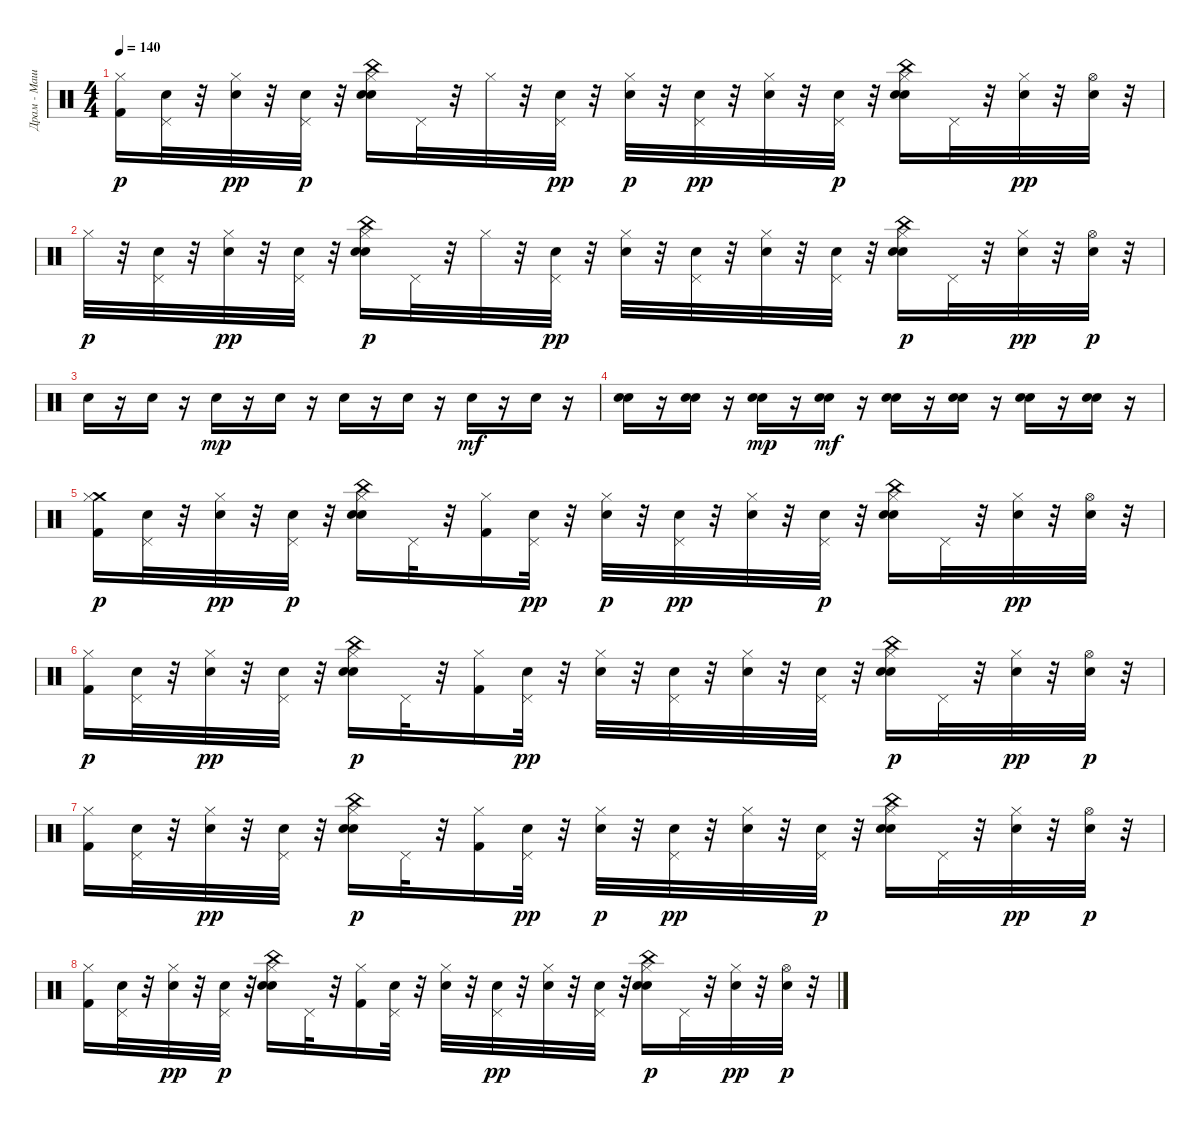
\track ("Драм - Машина" "Драм - Маш") {instrument percussion}
\staff {score}
\articulation defaults
\ts (4 4)
\tempo 140
\clef neutral
\ks c
("Kick (hit) 2" "Hi-Hat (closed)").16{dy p} ("Snare (hit) 2" "Pedal Hi-Hat (hit)").32 r.32 ("Hi-Hat (closed)" "Snare (hit) 2").32{dy pp} r.32 ("Snare (hit) 2" "Pedal Hi-Hat (hit)").32{dy p} r.32 ("Electric Snare (hit)" "China (hit)" "Hand Clap (hit)" "Hi-Hat (closed)").16 "Pedal Hi-Hat (hit)".32 r.32 "Hi-Hat (closed)".32 r.32 ("Pedal Hi-Hat (hit)" "Snare (hit) 2").32{dy pp} r.32 ("Snare (hit) 2" "Hi-Hat (closed)").32{dy p} r.32 ("Pedal Hi-Hat (hit)" "Snare (hit) 2").32{dy pp} r.32 ("Hi-Hat (closed)" "Snare (hit) 2").32 r.32 ("Snare (hit) 2" "Pedal Hi-Hat (hit)").32{dy p} r.32 ("Electric Snare (hit)" "Hand Clap (hit)" "China (hit)" "Hi-Hat (closed)").16 "Pedal Hi-Hat (hit)".32 r.32 ("Hi-Hat (closed)" "Snare (hit) 2").32{dy pp} r.32 ("Hi-Hat (open)" "Snare (hit) 2").32 r.32 |
"Hi-Hat (closed)".32{dy p} r.32 ("Snare (hit) 2" "Pedal Hi-Hat (hit)").32 r.32 ("Hi-Hat (closed)" "Snare (hit) 2").32{dy pp} r.32 ("Pedal Hi-Hat (hit)" "Snare (hit) 2").32 r.32 ("Hi-Hat (closed)" "Electric Snare (hit)" "Hand Clap (hit)" "China (hit)").16{dy p} "Pedal Hi-Hat (hit)".32 r.32 "Hi-Hat (closed)".32 r.32 ("Pedal Hi-Hat (hit)" "Snare (hit) 2").32{dy pp} r.32 ("Hi-Hat (closed)" "Snare (hit) 2").32 r.32 ("Pedal Hi-Hat (hit)" "Snare (hit) 2").32 r.32 ("Hi-Hat (closed)" "Snare (hit) 2").32 r.32 ("Pedal Hi-Hat (hit)" "Snare (hit) 2").32 r.32 ("Hi-Hat (closed)" "Electric Snare (hit)" "Hand Clap (hit)" "China (hit)").16{dy p} "Pedal Hi-Hat (hit)".32 r.32 ("Hi-Hat (closed)" "Snare (hit) 2").32{dy pp} r.32 ("Snare (hit) 2" "Hi-Hat (open)").32{dy p} r.32 |
"Electric Snare (hit)".16 r.16 "Electric Snare (hit)".16 r.16 "Electric Snare (hit)".16{dy mp} r.16 "Electric Snare (hit)".16 r.16 "Electric Snare (hit)".16 r.16 "Electric Snare (hit)".16 r.16 "Electric Snare (hit)".16{dy mf} r.16 "Electric Snare (hit)".16 r.16 |
("Hand Clap (hit)" "Electric Snare (hit)").16 r.16 ("Hand Clap (hit)" "Electric Snare (hit)").16 r.16 ("Electric Snare (hit)" "Hand Clap (hit)").16{dy mp} r.16 ("Hand Clap (hit)" "Electric Snare (hit)").16{dy mf} r.16 ("Hand Clap (hit)" "Electric Snare (hit)").16 r.16 ("Hand Clap (hit)" "Electric Snare (hit)").16 r.16 ("Hand Clap (hit)" "Electric Snare (hit)").16 r.16 ("Hand Clap (hit)" "Electric Snare (hit)").16 r.16 |
("Crash medium (hit)" "Kick (hit) 2" "Hi-Hat (closed)").16{dy p} ("Snare (hit) 2" "Pedal Hi-Hat (hit)").32 r.32 ("Hi-Hat (closed)" "Snare (hit) 2").32{dy pp} r.32 ("Snare (hit) 2" "Pedal Hi-Hat (hit)").32{dy p} r.32 ("Electric Snare (hit)" "China (hit)" "Hand Clap (hit)" "Hi-Hat (closed)").16 "Pedal Hi-Hat (hit)".32 r.32 ("Hi-Hat (closed)" "Kick (hit) 2").16 ("Pedal Hi-Hat (hit)" "Snare (hit) 2").32{dy pp} r.32 ("Snare (hit) 2" "Hi-Hat (closed)").32{dy p} r.32 ("Pedal Hi-Hat (hit)" "Snare (hit) 2").32{dy pp} r.32 ("Hi-Hat (closed)" "Snare (hit) 2").32 r.32 ("Snare (hit) 2" "Pedal Hi-Hat (hit)").32{dy p} r.32 ("Electric Snare (hit)" "Hand Clap (hit)" "China (hit)" "Hi-Hat (closed)").16 "Pedal Hi-Hat (hit)".32 r.32 ("Hi-Hat (closed)" "Snare (hit) 2").32{dy pp} r.32 ("Hi-Hat (open)" "Snare (hit) 2").32 r.32 |
("Hi-Hat (closed)" "Kick (hit) 2").16{dy p} ("Snare (hit) 2" "Pedal Hi-Hat (hit)").32 r.32 ("Hi-Hat (closed)" "Snare (hit) 2").32{dy pp} r.32 ("Pedal Hi-Hat (hit)" "Snare (hit) 2").32 r.32 ("Hi-Hat (closed)" "Electric Snare (hit)" "Hand Clap (hit)" "China (hit)").16{dy p} "Pedal Hi-Hat (hit)".32 r.32 ("Hi-Hat (closed)" "Kick (hit) 2").16 ("Pedal Hi-Hat (hit)" "Snare (hit) 2").32{dy pp} r.32 ("Hi-Hat (closed)" "Snare (hit) 2").32 r.32 ("Pedal Hi-Hat (hit)" "Snare (hit) 2").32 r.32 ("Hi-Hat (closed)" "Snare (hit) 2").32 r.32 ("Pedal Hi-Hat (hit)" "Snare (hit) 2").32 r.32 ("Hi-Hat (closed)" "Electric Snare (hit)" "Hand Clap (hit)" "China (hit)").16{dy p} "Pedal Hi-Hat (hit)".32 r.32 ("Hi-Hat (closed)" "Snare (hit) 2").32{dy pp} r.32 ("Snare (hit) 2" "Hi-Hat (open)").32{dy p} r.32 |
("Kick (hit) 2" "Hi-Hat (closed)").16 ("Snare (hit) 2" "Pedal Hi-Hat (hit)").32 r.32 ("Hi-Hat (closed)" "Snare (hit) 2").32{dy pp} r.32 ("Pedal Hi-Hat (hit)" "Snare (hit) 2").32 r.32 ("Hi-Hat (closed)" "Electric Snare (hit)" "Hand Clap (hit)" "China (hit)").16{dy p} "Pedal Hi-Hat (hit)".32 r.32 ("Hi-Hat (closed)" "Kick (hit) 2").16 ("Pedal Hi-Hat (hit)" "Snare (hit) 2").32{dy pp} r.32 ("Snare (hit) 2" "Hi-Hat (closed)").32{dy p} r.32 ("Pedal Hi-Hat (hit)" "Snare (hit) 2").32{dy pp} r.32 ("Hi-Hat (closed)" "Snare (hit) 2").32 r.32 ("Snare (hit) 2" "Pedal Hi-Hat (hit)").32{dy p} r.32 ("Electric Snare (hit)" "China (hit)" "Hand Clap (hit)" "Hi-Hat (closed)").16 "Pedal Hi-Hat (hit)".32 r.32 ("Hi-Hat (closed)" "Snare (hit) 2").32{dy pp} r.32 ("Snare (hit) 2" "Hi-Hat (open)").32{dy p} r.32 |
("Kick (hit) 2" "Hi-Hat (closed)").16 ("Snare (hit) 2" "Pedal Hi-Hat (hit)").32 r.32 ("Hi-Hat (closed)" "Snare (hit) 2").32{dy pp} r.32 ("Snare (hit) 2" "Pedal Hi-Hat (hit)").32{dy p} r.32 ("Electric Snare (hit)" "Hand Clap (hit)" "China (hit)" "Hi-Hat (closed)").16 "Pedal Hi-Hat (hit)".32 r.32 ("Hi-Hat (closed)" "Kick (hit) 2").16 ("Snare (hit) 2" "Pedal Hi-Hat (hit)").32 r.32 ("Snare (hit) 2" "Hi-Hat (closed)").32 r.32 ("Pedal Hi-Hat (hit)" "Snare (hit) 2").32{dy pp} r.32 ("Hi-Hat (closed)" "Snare (hit) 2").32 r.32 ("Pedal Hi-Hat (hit)" "Snare (hit) 2").32 r.32 ("Hi-Hat (closed)" "Electric Snare (hit)" "Hand Clap (hit)" "China (hit)").16{dy p} "Pedal Hi-Hat (hit)".32 r.32 ("Hi-Hat (closed)" "Snare (hit) 2").32{dy pp} r.32 ("Snare (hit) 2" "Hi-Hat (open)").32{dy p} r.32
